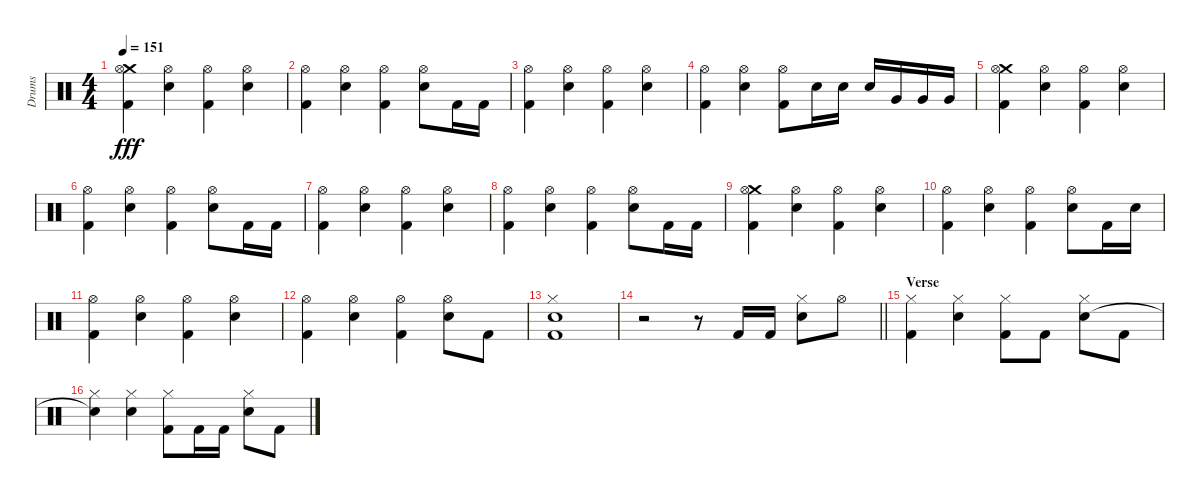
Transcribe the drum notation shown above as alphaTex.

\track ("Drums" "Drums") {instrument percussion}
\staff {score}
\articulation defaults
\ts (4 4)
\tempo 151
\clef neutral
\ks c
("Crash medium (hit)" "Hi-Hat (open)" "Kick (hit) 2").4{dy fff} ("Hi-Hat (open)" "Electric Snare (hit)").4 ("Hi-Hat (open)" "Kick (hit) 2").4 ("Hi-Hat (open)" "Electric Snare (hit)").4 |
("Hi-Hat (open)" "Kick (hit) 2").4 ("Hi-Hat (open)" "Electric Snare (hit)").4 ("Hi-Hat (open)" "Kick (hit) 2").4 ("Hi-Hat (open)" "Electric Snare (hit)").8 "Kick (hit) 2".16 "Kick (hit) 2".16 |
("Hi-Hat (open)" "Kick (hit) 2").4 ("Hi-Hat (open)" "Electric Snare (hit)").4 ("Hi-Hat (open)" "Kick (hit) 2").4 ("Hi-Hat (open)" "Electric Snare (hit)").4 |
("Hi-Hat (open)" "Kick (hit) 2").4 ("Hi-Hat (open)" "Electric Snare (hit)").4 ("Hi-Hat (open)" "Kick (hit) 2").8 "Electric Snare (hit)".16 "Electric Snare (hit)".16 "Electric Snare (hit)".16 "Very Low Tom (hit)".16 "Very Low Tom (hit)".16 "Very Low Tom (hit)".16 |
("Crash medium (hit)" "Hi-Hat (open)" "Kick (hit) 2").4 ("Hi-Hat (open)" "Electric Snare (hit)").4 ("Hi-Hat (open)" "Kick (hit) 2").4 ("Hi-Hat (open)" "Electric Snare (hit)").4 |
("Hi-Hat (open)" "Kick (hit) 2").4 ("Hi-Hat (open)" "Electric Snare (hit)").4 ("Hi-Hat (open)" "Kick (hit) 2").4 ("Hi-Hat (open)" "Electric Snare (hit)").8 "Kick (hit) 2".16 "Kick (hit) 2".16 |
("Hi-Hat (open)" "Kick (hit) 2").4 ("Hi-Hat (open)" "Electric Snare (hit)").4 ("Hi-Hat (open)" "Kick (hit) 2").4 ("Hi-Hat (open)" "Electric Snare (hit)").4 |
("Hi-Hat (open)" "Kick (hit) 2").4 ("Hi-Hat (open)" "Electric Snare (hit)").4 ("Hi-Hat (open)" "Kick (hit) 2").4 ("Hi-Hat (open)" "Electric Snare (hit)").8 "Kick (hit) 2".16 "Kick (hit) 2".16 |
("Crash medium (hit)" "Hi-Hat (open)" "Kick (hit) 2").4 ("Hi-Hat (open)" "Electric Snare (hit)").4 ("Hi-Hat (open)" "Kick (hit) 2").4 ("Hi-Hat (open)" "Electric Snare (hit)").4 |
("Hi-Hat (open)" "Kick (hit) 2").4 ("Hi-Hat (open)" "Electric Snare (hit)").4 ("Hi-Hat (open)" "Kick (hit) 2").4 ("Hi-Hat (open)" "Electric Snare (hit)").8 "Kick (hit) 2".16 "Electric Snare (hit)".16 |
("Hi-Hat (open)" "Kick (hit) 2").4 ("Hi-Hat (open)" "Electric Snare (hit)").4 ("Hi-Hat (open)" "Kick (hit) 2").4 ("Hi-Hat (open)" "Electric Snare (hit)").4 |
("Hi-Hat (open)" "Kick (hit) 2").4 ("Hi-Hat (open)" "Electric Snare (hit)").4 ("Hi-Hat (open)" "Kick (hit) 2").4 ("Hi-Hat (open)" "Electric Snare (hit)").8 "Kick (hit) 2".8 |
("Hi-Hat (closed)" "Electric Snare (hit)" "Kick (hit) 2").1 |
\barLineRight lightlight
r.2 r.8 "Kick (hit) 2".16 "Kick (hit) 2".16 ("Hi-Hat (closed)" "Electric Snare (hit)").8 "Hi-Hat (open)".8 |
\section ("" "Verse")
("Hi-Hat (closed)" "Kick (hit) 2").4 ("Hi-Hat (closed)" "Electric Snare (hit)").4 ("Hi-Hat (closed)" "Kick (hit) 2").8 "Kick (hit) 2".8 ("Hi-Hat (closed)" "Electric Snare (hit)").8 "Kick (hit) 2".8 |
("Hi-Hat (closed)" "Snare (hit)"{t}).4 ("Hi-Hat (closed)" "Electric Snare (hit)").4 ("Hi-Hat (closed)" "Kick (hit) 2").8 "Kick (hit) 2".16 "Kick (hit) 2".16 ("Hi-Hat (closed)" "Electric Snare (hit)").8 "Kick (hit) 2".8
